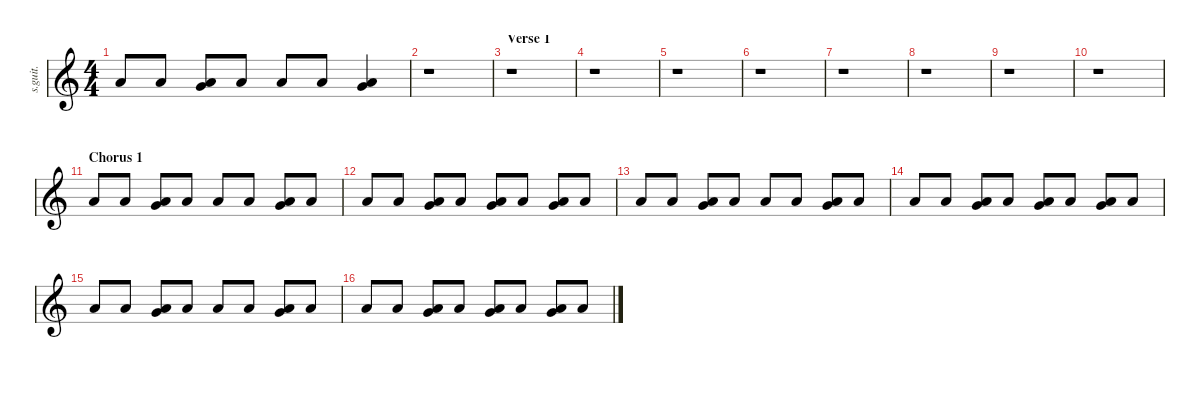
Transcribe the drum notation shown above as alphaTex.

\defaultSystemsLayout 4
\hideDynamics
\bracketExtendMode nobrackets
\track ("Clown" "s.guit.") {instrument percussion}
\staff {score}
\articulation defaults
\ts (4 4)
\tempo (210 hide)
\clef g2
\ks c "Low Floor Tom (hit)".8{lyrics (0 "") lyrics (1 "") lyrics (2 "") lyrics (3 "") lyrics (4 "") dy f} "Low Floor Tom (hit)".8{lyrics (0 "") lyrics (1 "") lyrics (2 "") lyrics (3 "") lyrics (4 "")}
("Very Low Tom (hit)" "Low Floor Tom (hit)").8{lyrics (0 "") lyrics (1 "") lyrics (2 "") lyrics (3 "") lyrics (4 "")} "Low Floor Tom (hit)".8{lyrics (0 "") lyrics (1 "") lyrics (2 "") lyrics (3 "") lyrics (4 "")} "Low Floor Tom (hit)".8{lyrics (0 "") lyrics (1 "") lyrics (2 "") lyrics (3 "") lyrics (4 "")} "Low Floor Tom (hit)".8{lyrics (0 "") lyrics (1 "") lyrics (2 "") lyrics (3 "") lyrics (4 "")} ("Very Low Tom (hit)" "Low Floor Tom (hit)").4{lyrics (0 "") lyrics (1 "") lyrics (2 "") lyrics (3 "") lyrics (4 "")} |
r.1 |
\section ("" "Verse 1")
r.1 |
r.1 |
r.1 |
r.1 |
r.1 |
r.1 |
r.1 |
r.1 |
\section ("" "Chorus 1")
"Low Floor Tom (hit)".8{lyrics (0 "") lyrics (1 "") lyrics (2 "") lyrics (3 "") lyrics (4 "")} "Low Floor Tom (hit)".8{lyrics (0 "") lyrics (1 "") lyrics (2 "") lyrics (3 "") lyrics (4 "")} ("Very Low Tom (hit)" "Low Floor Tom (hit)").8{lyrics (0 "") lyrics (1 "") lyrics (2 "") lyrics (3 "") lyrics (4 "")} "Low Floor Tom (hit)".8{lyrics (0 "") lyrics (1 "") lyrics (2 "") lyrics (3 "") lyrics (4 "")} "Low Floor Tom (hit)".8{lyrics (0 "") lyrics (1 "") lyrics (2 "") lyrics (3 "") lyrics (4 "")} "Low Floor Tom (hit)".8{lyrics (0 "") lyrics (1 "") lyrics (2 "") lyrics (3 "") lyrics (4 "")} ("Very Low Tom (hit)" "Low Floor Tom (hit)").8{lyrics (0 "") lyrics (1 "") lyrics (2 "") lyrics (3 "") lyrics (4 "")} "Low Floor Tom (hit)".8{lyrics (0 "") lyrics (1 "") lyrics (2 "") lyrics (3 "") lyrics (4 "")} |
"Low Floor Tom (hit)".8{lyrics (0 "") lyrics (1 "") lyrics (2 "") lyrics (3 "") lyrics (4 "")} "Low Floor Tom (hit)".8{lyrics (0 "") lyrics (1 "") lyrics (2 "") lyrics (3 "") lyrics (4 "")} ("Very Low Tom (hit)" "Low Floor Tom (hit)").8{lyrics (0 "") lyrics (1 "") lyrics (2 "") lyrics (3 "") lyrics (4 "")} "Low Floor Tom (hit)".8{lyrics (0 "") lyrics (1 "") lyrics (2 "") lyrics (3 "") lyrics (4 "")} ("Very Low Tom (hit)" "Low Floor Tom (hit)").8{lyrics (0 "") lyrics (1 "") lyrics (2 "") lyrics (3 "") lyrics (4 "")} "Low Floor Tom (hit)".8{lyrics (0 "") lyrics (1 "") lyrics (2 "") lyrics (3 "") lyrics (4 "")} ("Very Low Tom (hit)" "Low Floor Tom (hit)").8{lyrics (0 "") lyrics (1 "") lyrics (2 "") lyrics (3 "") lyrics (4 "")} "Low Floor Tom (hit)".8{lyrics (0 "") lyrics (1 "") lyrics (2 "") lyrics (3 "") lyrics (4 "")} |
"Low Floor Tom (hit)".8{lyrics (0 "") lyrics (1 "") lyrics (2 "") lyrics (3 "") lyrics (4 "")} "Low Floor Tom (hit)".8{lyrics (0 "") lyrics (1 "") lyrics (2 "") lyrics (3 "") lyrics (4 "")} ("Very Low Tom (hit)" "Low Floor Tom (hit)").8{lyrics (0 "") lyrics (1 "") lyrics (2 "") lyrics (3 "") lyrics (4 "")} "Low Floor Tom (hit)".8{lyrics (0 "") lyrics (1 "") lyrics (2 "") lyrics (3 "") lyrics (4 "")} "Low Floor Tom (hit)".8{lyrics (0 "") lyrics (1 "") lyrics (2 "") lyrics (3 "") lyrics (4 "")} "Low Floor Tom (hit)".8{lyrics (0 "") lyrics (1 "") lyrics (2 "") lyrics (3 "") lyrics (4 "")} ("Very Low Tom (hit)" "Low Floor Tom (hit)").8{lyrics (0 "") lyrics (1 "") lyrics (2 "") lyrics (3 "") lyrics (4 "")} "Low Floor Tom (hit)".8{lyrics (0 "") lyrics (1 "") lyrics (2 "") lyrics (3 "") lyrics (4 "")} |
"Low Floor Tom (hit)".8{lyrics (0 "") lyrics (1 "") lyrics (2 "") lyrics (3 "") lyrics (4 "")} "Low Floor Tom (hit)".8{lyrics (0 "") lyrics (1 "") lyrics (2 "") lyrics (3 "") lyrics (4 "")} ("Very Low Tom (hit)" "Low Floor Tom (hit)").8{lyrics (0 "") lyrics (1 "") lyrics (2 "") lyrics (3 "") lyrics (4 "")} "Low Floor Tom (hit)".8{lyrics (0 "") lyrics (1 "") lyrics (2 "") lyrics (3 "") lyrics (4 "")} ("Very Low Tom (hit)" "Low Floor Tom (hit)").8{lyrics (0 "") lyrics (1 "") lyrics (2 "") lyrics (3 "") lyrics (4 "")} "Low Floor Tom (hit)".8{lyrics (0 "") lyrics (1 "") lyrics (2 "") lyrics (3 "") lyrics (4 "")} ("Very Low Tom (hit)" "Low Floor Tom (hit)").8{lyrics (0 "") lyrics (1 "") lyrics (2 "") lyrics (3 "") lyrics (4 "")} "Low Floor Tom (hit)".8{lyrics (0 "") lyrics (1 "") lyrics (2 "") lyrics (3 "") lyrics (4 "")} |
"Low Floor Tom (hit)".8{lyrics (0 "") lyrics (1 "") lyrics (2 "") lyrics (3 "") lyrics (4 "")} "Low Floor Tom (hit)".8{lyrics (0 "") lyrics (1 "") lyrics (2 "") lyrics (3 "") lyrics (4 "")} ("Very Low Tom (hit)" "Low Floor Tom (hit)").8{lyrics (0 "") lyrics (1 "") lyrics (2 "") lyrics (3 "") lyrics (4 "")} "Low Floor Tom (hit)".8{lyrics (0 "") lyrics (1 "") lyrics (2 "") lyrics (3 "") lyrics (4 "")} "Low Floor Tom (hit)".8{lyrics (0 "") lyrics (1 "") lyrics (2 "") lyrics (3 "") lyrics (4 "")} "Low Floor Tom (hit)".8{lyrics (0 "") lyrics (1 "") lyrics (2 "") lyrics (3 "") lyrics (4 "")} ("Very Low Tom (hit)" "Low Floor Tom (hit)").8{lyrics (0 "") lyrics (1 "") lyrics (2 "") lyrics (3 "") lyrics (4 "")} "Low Floor Tom (hit)".8{lyrics (0 "") lyrics (1 "") lyrics (2 "") lyrics (3 "") lyrics (4 "")} |
"Low Floor Tom (hit)".8{lyrics (0 "") lyrics (1 "") lyrics (2 "") lyrics (3 "") lyrics (4 "")} "Low Floor Tom (hit)".8{lyrics (0 "") lyrics (1 "") lyrics (2 "") lyrics (3 "") lyrics (4 "")} ("Very Low Tom (hit)" "Low Floor Tom (hit)").8{lyrics (0 "") lyrics (1 "") lyrics (2 "") lyrics (3 "") lyrics (4 "")} "Low Floor Tom (hit)".8{lyrics (0 "") lyrics (1 "") lyrics (2 "") lyrics (3 "") lyrics (4 "")} ("Very Low Tom (hit)" "Low Floor Tom (hit)").8{lyrics (0 "") lyrics (1 "") lyrics (2 "") lyrics (3 "") lyrics (4 "")} "Low Floor Tom (hit)".8{lyrics (0 "") lyrics (1 "") lyrics (2 "") lyrics (3 "") lyrics (4 "")} ("Very Low Tom (hit)" "Low Floor Tom (hit)").8{lyrics (0 "") lyrics (1 "") lyrics (2 "") lyrics (3 "") lyrics (4 "")} "Low Floor Tom (hit)".8{lyrics (0 "") lyrics (1 "") lyrics (2 "") lyrics (3 "") lyrics (4 "")}
